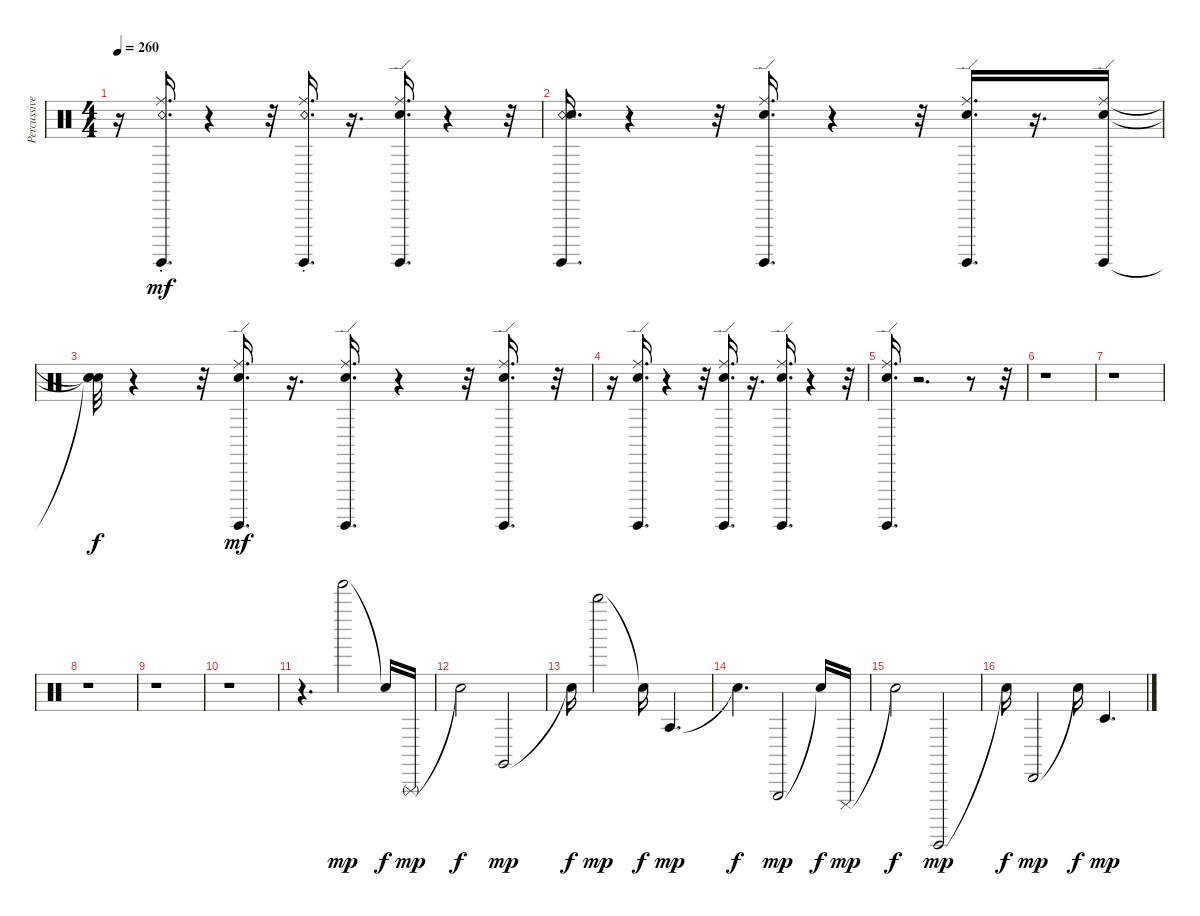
\track ("Percussive Organ" "Percussive") {instrument percussion}
\staff {score}
\articulation defaults
\ts (4 4)
\tempo 260
\clef neutral
\ks c
r.16{dy mf} ("Surdo (hit)" "Ride (choke)" "Snare (rim shot)").16{d} r.4 r.32 ("Surdo (hit)" "Ride (choke)" "Snare (rim shot)").16{d} r.16{d} ("Surdo (hit)" "Ride (edge)" "Snare (hit)").16{d} r.4 r.32 |
("Surdo (hit)" "Snare (rim shot)" "Snare (hit)").16{d} r.4 r.32 ("Surdo (hit)" "Ride (edge)" "Snare (hit)").16{d} r.4 r.32 ("Surdo (hit)" "Ride (edge)" "Snare (hit)").16{d} r.16{d} ("Surdo (hit)" "Ride (edge)" "Snare (hit)").16 |
("Snare (hit)"{t} "Snare (hit)"{t} "Snare (hit)"{t}).32{dy f} r.4 r.32 ("Surdo (hit)" "Ride (edge)" "Snare (hit)").16{d dy mf} r.16{d} ("Surdo (hit)" "Ride (edge)" "Snare (hit)").16{d} r.4 r.32 ("Surdo (hit)" "Ride (edge)" "Snare (hit)").16{d} r.32 |
r.16 ("Surdo (hit)" "Ride (edge)" "Snare (hit)").16{d} r.4 r.32 ("Surdo (hit)" "Ride (edge)" "Snare (hit)").16{d} r.16{d} ("Surdo (hit)" "Ride (edge)" "Snare (hit)").16{d} r.4 r.32 |
("Surdo (hit)" "Ride (edge)" "Snare (hit)").16{d} r.2{d} r.8 r.32 |
r.1 |
r.1 |
r.1 |
r.1 |
r.1 |
r.4{d} "Tinkle Bell (hit)".2{dy mp} "Snare (hit)"{t}.16{dy f} "Triangle (rnute)".16{dy mp} |
"Snare (hit)"{t}.2{dy f} "Claves (hit)".2{dy mp} |
"Snare (hit)"{t}.16{dy f} "Whistle high (hit)".2{dy mp} "Snare (hit)"{t}.16{dy f} "Agogo tow (hit)".4{d dy mp} |
"Snare (hit)"{t}.4{d dy f} "Triangle (hit)".2{dy mp} "Snare (hit)"{t}.16{dy f} "Cuica (mute)".16{dy mp} |
"Snare (hit)"{t}.2{dy f} "Guiro (hit)".2{dy mp} |
"Snare (hit)"{t}.16{dy f} "Cabasa (hit)".2{dy mp} "Snare (hit)"{t}.16{dy f} "Timbale low (hit)".4{d dy mp}
